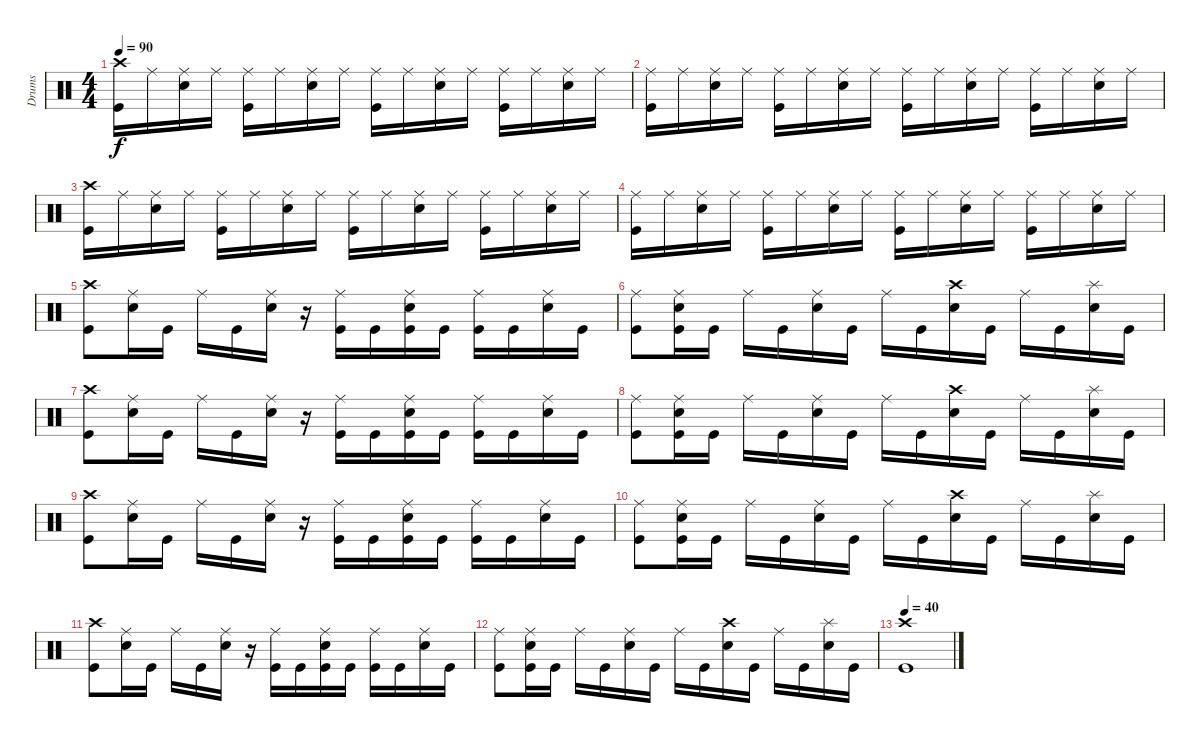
\track ("Drums" "Drums") {instrument percussion}
\staff {score}
\articulation defaults
\ts (4 4)
\tempo 90
\clef neutral
\ks c
("Crash high (hit)" "Kick (hit)").16{dy f} "Ride (middle)".16 ("Ride (middle)" "Electric Snare (hit)").16 "Ride (middle)".16 ("Ride (middle)" "Kick (hit)").16 "Ride (middle)".16 ("Ride (middle)" "Electric Snare (hit)").16 "Ride (middle)".16 ("Ride (middle)" "Kick (hit)").16 "Ride (middle)".16 ("Ride (middle)" "Electric Snare (hit)").16 "Ride (middle)".16 ("Ride (middle)" "Kick (hit)").16 "Ride (middle)".16 ("Ride (middle)" "Electric Snare (hit)").16 "Ride (middle)".16 |
("Ride (middle)" "Kick (hit)").16 "Ride (middle)".16 ("Ride (middle)" "Electric Snare (hit)").16 "Ride (middle)".16 ("Ride (middle)" "Kick (hit)").16 "Ride (middle)".16 ("Ride (middle)" "Electric Snare (hit)").16 "Ride (middle)".16 ("Ride (middle)" "Kick (hit)").16 "Ride (middle)".16 ("Ride (middle)" "Electric Snare (hit)").16 "Ride (middle)".16 ("Ride (middle)" "Kick (hit)").16 "Ride (middle)".16 ("Ride (middle)" "Electric Snare (hit)").16 "Ride (middle)".16 |
("Crash high (hit)" "Kick (hit)").16 "Ride (middle)".16 ("Ride (middle)" "Electric Snare (hit)").16 "Ride (middle)".16 ("Ride (middle)" "Kick (hit)").16 "Ride (middle)".16 ("Ride (middle)" "Electric Snare (hit)").16 "Ride (middle)".16 ("Ride (middle)" "Kick (hit)").16 "Ride (middle)".16 ("Ride (middle)" "Electric Snare (hit)").16 "Ride (middle)".16 ("Ride (middle)" "Kick (hit)").16 "Ride (middle)".16 ("Ride (middle)" "Electric Snare (hit)").16 "Ride (middle)".16 |
("Ride (middle)" "Kick (hit)").16 "Ride (middle)".16 ("Ride (middle)" "Electric Snare (hit)").16 "Ride (middle)".16 ("Ride (middle)" "Kick (hit)").16 "Ride (middle)".16 ("Ride (middle)" "Electric Snare (hit)").16 "Ride (middle)".16 ("Ride (middle)" "Kick (hit)").16 "Ride (middle)".16 ("Ride (middle)" "Electric Snare (hit)").16 "Ride (middle)".16 ("Ride (middle)" "Kick (hit)").16 "Ride (middle)".16 ("Ride (middle)" "Electric Snare (hit)").16 "Ride (middle)".16 |
("Crash high (hit)" "Kick (hit)").8 ("Ride (middle)" "Electric Snare (hit)").16 "Kick (hit)".16 "Ride (middle)".16 "Kick (hit)".16 ("Ride (middle)" "Electric Snare (hit)").16 r.16 ("Ride (middle)" "Kick (hit)").16 "Kick (hit)".16 ("Ride (middle)" "Electric Snare (hit)" "Kick (hit)").16 "Kick (hit)".16 ("Ride (middle)" "Kick (hit)").16 "Kick (hit)".16 ("Ride (middle)" "Electric Snare (hit)").16 "Kick (hit)".16 |
("Ride (middle)" "Kick (hit)").8 ("Ride (middle)" "Electric Snare (hit)" "Kick (hit)").16 "Kick (hit)".16 "Ride (middle)".16 "Kick (hit)".16 ("Ride (middle)" "Electric Snare (hit)").16 "Kick (hit)".16 "Ride (middle)".16 "Kick (hit)".16 ("Crash high (hit)" "Electric Snare (hit)").16 "Kick (hit)".16 "Ride (middle)".16 "Kick (hit)".16 ("Splash (hit)" "Electric Snare (hit)").16 "Kick (hit)".16 |
("Crash high (hit)" "Kick (hit)").8 ("Ride (middle)" "Electric Snare (hit)").16 "Kick (hit)".16 "Ride (middle)".16 "Kick (hit)".16 ("Ride (middle)" "Electric Snare (hit)").16 r.16 ("Ride (middle)" "Kick (hit)").16 "Kick (hit)".16 ("Ride (middle)" "Electric Snare (hit)" "Kick (hit)").16 "Kick (hit)".16 ("Ride (middle)" "Kick (hit)").16 "Kick (hit)".16 ("Ride (middle)" "Electric Snare (hit)").16 "Kick (hit)".16 |
("Ride (middle)" "Kick (hit)").8 ("Ride (middle)" "Electric Snare (hit)" "Kick (hit)").16 "Kick (hit)".16 "Ride (middle)".16 "Kick (hit)".16 ("Ride (middle)" "Electric Snare (hit)").16 "Kick (hit)".16 "Ride (middle)".16 "Kick (hit)".16 ("Crash high (hit)" "Electric Snare (hit)").16 "Kick (hit)".16 "Ride (middle)".16 "Kick (hit)".16 ("Splash (hit)" "Electric Snare (hit)").16 "Kick (hit)".16 |
("Crash high (hit)" "Kick (hit)").8 ("Ride (middle)" "Electric Snare (hit)").16 "Kick (hit)".16 "Ride (middle)".16 "Kick (hit)".16 ("Ride (middle)" "Electric Snare (hit)").16 r.16 ("Ride (middle)" "Kick (hit)").16 "Kick (hit)".16 ("Ride (middle)" "Electric Snare (hit)" "Kick (hit)").16 "Kick (hit)".16 ("Ride (middle)" "Kick (hit)").16 "Kick (hit)".16 ("Ride (middle)" "Electric Snare (hit)").16 "Kick (hit)".16 |
("Ride (middle)" "Kick (hit)").8 ("Ride (middle)" "Electric Snare (hit)" "Kick (hit)").16 "Kick (hit)".16 "Ride (middle)".16 "Kick (hit)".16 ("Ride (middle)" "Electric Snare (hit)").16 "Kick (hit)".16 "Ride (middle)".16 "Kick (hit)".16 ("Crash high (hit)" "Electric Snare (hit)").16 "Kick (hit)".16 "Ride (middle)".16 "Kick (hit)".16 ("Splash (hit)" "Electric Snare (hit)").16 "Kick (hit)".16 |
("Crash high (hit)" "Kick (hit)").8 ("Ride (middle)" "Electric Snare (hit)").16 "Kick (hit)".16 "Ride (middle)".16 "Kick (hit)".16 ("Ride (middle)" "Electric Snare (hit)").16 r.16 ("Ride (middle)" "Kick (hit)").16 "Kick (hit)".16 ("Ride (middle)" "Electric Snare (hit)" "Kick (hit)").16 "Kick (hit)".16 ("Ride (middle)" "Kick (hit)").16 "Kick (hit)".16 ("Ride (middle)" "Electric Snare (hit)").16 "Kick (hit)".16 |
("Ride (middle)" "Kick (hit)").8 ("Ride (middle)" "Electric Snare (hit)" "Kick (hit)").16 "Kick (hit)".16 "Ride (middle)".16 "Kick (hit)".16 ("Ride (middle)" "Electric Snare (hit)").16 "Kick (hit)".16 "Ride (middle)".16 "Kick (hit)".16 ("Crash high (hit)" "Electric Snare (hit)").16 "Kick (hit)".16 "Ride (middle)".16 "Kick (hit)".16 ("Splash (hit)" "Electric Snare (hit)").16 "Kick (hit)".16 |
\tempo 40
("Crash high (hit)" "Kick (hit)").1
